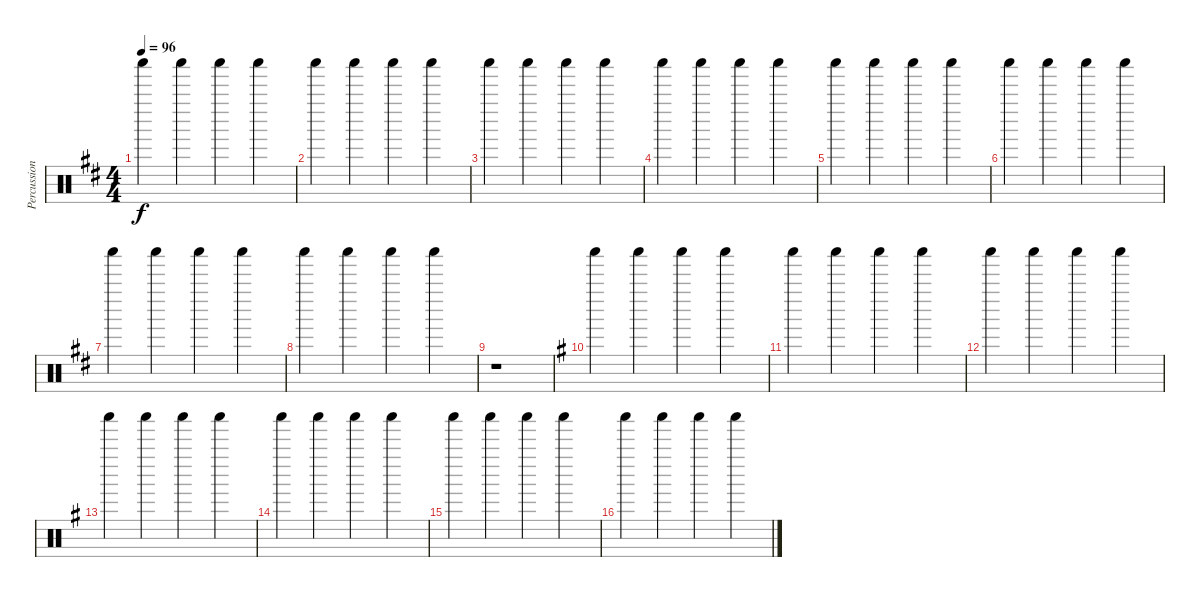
\track ("Percussion" "Percussion") {instrument percussion}
\staff {score}
\articulation defaults
\ts (4 4)
\tempo 96
\clef neutral
\ks d "Shaker (hit)".4{dy f} "Shaker (hit)".4 "Shaker (hit)".4 "Shaker (hit)".4
|
"Shaker (hit)".4 "Shaker (hit)".4 "Shaker (hit)".4 "Shaker (hit)".4 |
"Shaker (hit)".4 "Shaker (hit)".4 "Shaker (hit)".4 "Shaker (hit)".4 |
"Shaker (hit)".4 "Shaker (hit)".4 "Shaker (hit)".4 "Shaker (hit)".4 |
"Shaker (hit)".4 "Shaker (hit)".4 "Shaker (hit)".4 "Shaker (hit)".4 |
"Shaker (hit)".4 "Shaker (hit)".4 "Shaker (hit)".4 "Shaker (hit)".4 |
"Shaker (hit)".4 "Shaker (hit)".4 "Shaker (hit)".4 "Shaker (hit)".4 |
"Shaker (hit)".4 "Shaker (hit)".4 "Shaker (hit)".4 "Shaker (hit)".4 |
r.1 |
\ks g "Shaker (hit)".4 "Shaker (hit)".4 "Shaker (hit)".4 "Shaker (hit)".4
|
"Shaker (hit)".4 "Shaker (hit)".4 "Shaker (hit)".4 "Shaker (hit)".4 |
"Shaker (hit)".4 "Shaker (hit)".4 "Shaker (hit)".4 "Shaker (hit)".4 |
"Shaker (hit)".4 "Shaker (hit)".4 "Shaker (hit)".4 "Shaker (hit)".4 |
"Shaker (hit)".4 "Shaker (hit)".4 "Shaker (hit)".4 "Shaker (hit)".4 |
"Shaker (hit)".4 "Shaker (hit)".4 "Shaker (hit)".4 "Shaker (hit)".4 |
"Shaker (hit)".4 "Shaker (hit)".4 "Shaker (hit)".4 "Shaker (hit)".4
